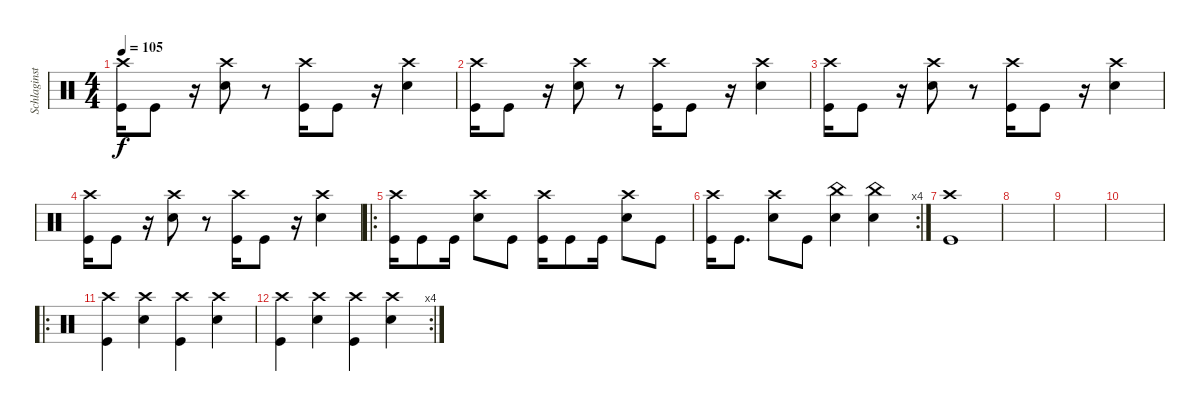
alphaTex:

\track ("Schlaginstrumente - Auswahl" "Schlaginst") {instrument percussion}
\staff {score}
\articulation defaults
\ts (4 4)
\tempo 105
\clef neutral
\ks c
("Crash high (hit)" "Kick (hit)").16{dy f} "Kick (hit)".8 r.16 ("Crash high (hit)" "Snare (hit) 2").8 r.8 ("Crash high (hit)" "Kick (hit)").16 "Kick (hit)".8 r.16 ("Crash high (hit)" "Snare (hit) 2").4 |
("Crash high (hit)" "Kick (hit)").16 "Kick (hit)".8 r.16 ("Crash high (hit)" "Snare (hit) 2").8 r.8 ("Crash high (hit)" "Kick (hit)").16 "Kick (hit)".8 r.16 ("Crash high (hit)" "Snare (hit) 2").4 |
("Crash high (hit)" "Kick (hit)").16 "Kick (hit)".8 r.16 ("Crash high (hit)" "Snare (hit) 2").8 r.8 ("Crash high (hit)" "Kick (hit)").16 "Kick (hit)".8 r.16 ("Crash high (hit)" "Snare (hit) 2").4 |
("Crash high (hit)" "Kick (hit)").16 "Kick (hit)".8 r.16 ("Crash high (hit)" "Snare (hit) 2").8 r.8 ("Crash high (hit)" "Kick (hit)").16 "Kick (hit)".8 r.16 ("Crash high (hit)" "Snare (hit) 2").4 |
\ro
("Crash high (hit)" "Kick (hit)").16 "Kick (hit)".8 "Kick (hit)".16 ("Crash high (hit)" "Snare (hit) 2").8 "Kick (hit)".8 ("Crash high (hit)" "Kick (hit)").16 "Kick (hit)".8 "Kick (hit)".16 ("Crash high (hit)" "Snare (hit) 2").8 "Kick (hit)".8 |
\rc 4
("Crash high (hit)" "Kick (hit)").16 "Kick (hit)".8{d} ("Crash high (hit)" "Snare (hit) 2").8 "Kick (hit)".8 ("China (hit)" "Snare (hit) 2").4 ("China (hit)" "Snare (hit) 2").4 |
("Crash high (hit)" "Kick (hit)").1 |
|
|
|
\ro
("Crash high (hit)" "Kick (hit)").4 ("Crash high (hit)" "Snare (hit) 2").4 ("Crash high (hit)" "Kick (hit)").4 ("Crash high (hit)" "Snare (hit) 2").4 |
\rc 4
("Crash high (hit)" "Kick (hit)").4 ("Crash high (hit)" "Snare (hit) 2").4 ("Crash high (hit)" "Kick (hit)").4 ("Crash high (hit)" "Snare (hit) 2").4
